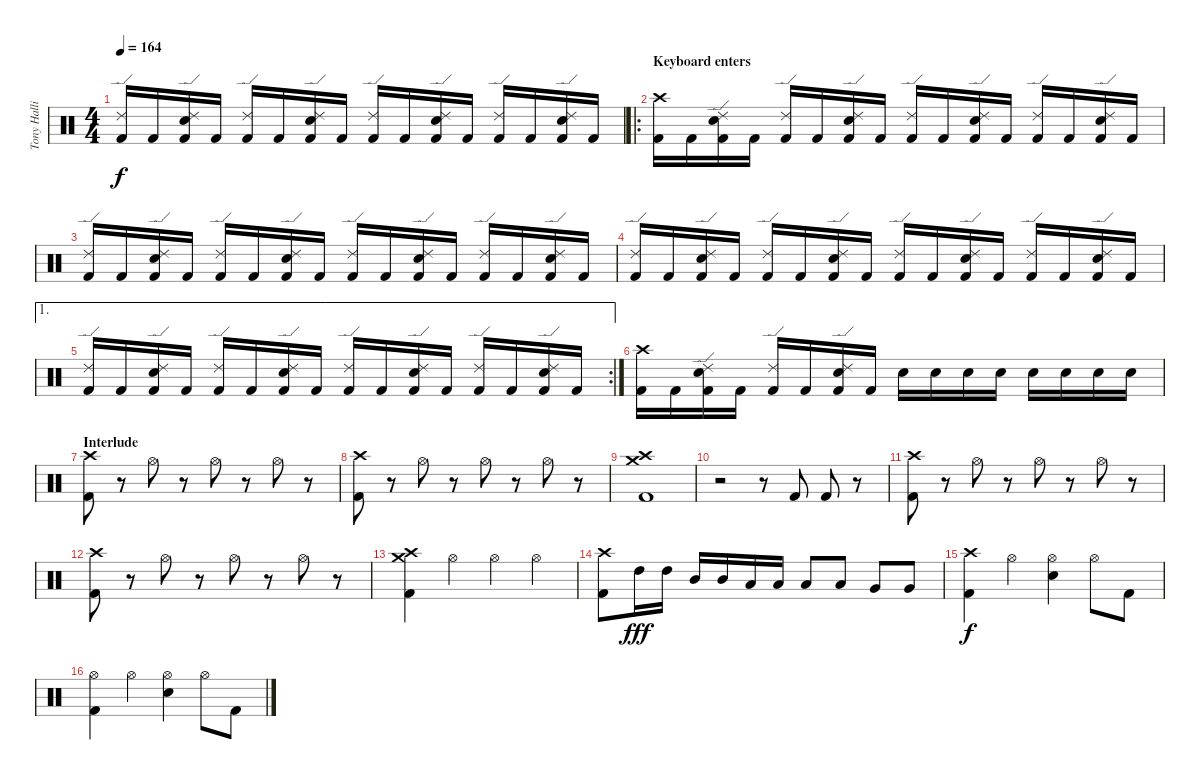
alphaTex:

\track ("Tony Hallio - Drums" "Tony Halli") {instrument percussion}
\staff {score}
\articulation defaults
\ts (4 4)
\tempo 164
\clef neutral
\ks c
("Ride (edge) 2" "Kick (hit) 2").16{dy f} "Kick (hit) 2".16 ("Ride (edge) 2" "Electric Snare (hit)" "Kick (hit) 2").16 "Kick (hit) 2".16 ("Ride (edge) 2" "Kick (hit) 2").16 "Kick (hit) 2".16 ("Ride (edge) 2" "Electric Snare (hit)" "Kick (hit) 2").16 "Kick (hit) 2".16 ("Ride (edge) 2" "Kick (hit) 2").16 "Kick (hit) 2".16 ("Ride (edge) 2" "Electric Snare (hit)" "Kick (hit) 2").16 "Kick (hit) 2".16 ("Ride (edge) 2" "Kick (hit) 2").16 "Kick (hit) 2".16 ("Ride (edge) 2" "Electric Snare (hit)" "Kick (hit) 2").16 "Kick (hit) 2".16 |
\ro
\section ("" "Keyboard enters")
("Crash high (hit)" "Kick (hit) 2").16 "Kick (hit) 2".16 ("Ride (edge) 2" "Electric Snare (hit)" "Kick (hit) 2").16 "Kick (hit) 2".16 ("Ride (edge) 2" "Kick (hit) 2").16 "Kick (hit) 2".16 ("Ride (edge) 2" "Electric Snare (hit)" "Kick (hit) 2").16 "Kick (hit) 2".16 ("Ride (edge) 2" "Kick (hit) 2").16 "Kick (hit) 2".16 ("Ride (edge) 2" "Electric Snare (hit)" "Kick (hit) 2").16 "Kick (hit) 2".16 ("Ride (edge) 2" "Kick (hit) 2").16 "Kick (hit) 2".16 ("Ride (edge) 2" "Electric Snare (hit)" "Kick (hit) 2").16 "Kick (hit) 2".16 |
("Ride (edge) 2" "Kick (hit) 2").16 "Kick (hit) 2".16 ("Ride (edge) 2" "Electric Snare (hit)" "Kick (hit) 2").16 "Kick (hit) 2".16 ("Ride (edge) 2" "Kick (hit) 2").16 "Kick (hit) 2".16 ("Ride (edge) 2" "Electric Snare (hit)" "Kick (hit) 2").16 "Kick (hit) 2".16 ("Ride (edge) 2" "Kick (hit) 2").16 "Kick (hit) 2".16 ("Ride (edge) 2" "Electric Snare (hit)" "Kick (hit) 2").16 "Kick (hit) 2".16 ("Ride (edge) 2" "Kick (hit) 2").16 "Kick (hit) 2".16 ("Ride (edge) 2" "Electric Snare (hit)" "Kick (hit) 2").16 "Kick (hit) 2".16 |
("Ride (edge) 2" "Kick (hit) 2").16 "Kick (hit) 2".16 ("Ride (edge) 2" "Electric Snare (hit)" "Kick (hit) 2").16 "Kick (hit) 2".16 ("Ride (edge) 2" "Kick (hit) 2").16 "Kick (hit) 2".16 ("Ride (edge) 2" "Electric Snare (hit)" "Kick (hit) 2").16 "Kick (hit) 2".16 ("Ride (edge) 2" "Kick (hit) 2").16 "Kick (hit) 2".16 ("Ride (edge) 2" "Electric Snare (hit)" "Kick (hit) 2").16 "Kick (hit) 2".16 ("Ride (edge) 2" "Kick (hit) 2").16 "Kick (hit) 2".16 ("Ride (edge) 2" "Electric Snare (hit)" "Kick (hit) 2").16 "Kick (hit) 2".16 |
\ae 1
\rc 2
("Ride (edge) 2" "Kick (hit) 2").16 "Kick (hit) 2".16 ("Ride (edge) 2" "Electric Snare (hit)" "Kick (hit) 2").16 "Kick (hit) 2".16 ("Ride (edge) 2" "Kick (hit) 2").16 "Kick (hit) 2".16 ("Ride (edge) 2" "Electric Snare (hit)" "Kick (hit) 2").16 "Kick (hit) 2".16 ("Ride (edge) 2" "Kick (hit) 2").16 "Kick (hit) 2".16 ("Ride (edge) 2" "Electric Snare (hit)" "Kick (hit) 2").16 "Kick (hit) 2".16 ("Ride (edge) 2" "Kick (hit) 2").16 "Kick (hit) 2".16 ("Ride (edge) 2" "Electric Snare (hit)" "Kick (hit) 2").16 "Kick (hit) 2".16 |
("Crash high (hit)" "Kick (hit) 2").16 "Kick (hit) 2".16 ("Ride (edge) 2" "Electric Snare (hit)" "Kick (hit) 2").16 "Kick (hit) 2".16 ("Ride (edge) 2" "Kick (hit) 2").16 "Kick (hit) 2".16 ("Ride (edge) 2" "Electric Snare (hit)" "Kick (hit) 2").16 "Kick (hit) 2".16 "Electric Snare (hit)".16 "Electric Snare (hit)".16 "Electric Snare (hit)".16 "Electric Snare (hit)".16 "Electric Snare (hit)".16 "Electric Snare (hit)".16 "Electric Snare (hit)".16 "Electric Snare (hit)".16 |
\section ("" "Interlude")
("Crash high (hit)" "Kick (hit) 2").8 r.8 "Hi-Hat (open)".8 r.8 "Hi-Hat (open)".8 r.8 "Hi-Hat (open)".8 r.8 |
("Crash high (hit)" "Kick (hit) 2").8 r.8 "Hi-Hat (open)".8 r.8 "Hi-Hat (open)".8 r.8 "Hi-Hat (open)".8 r.8 |
("Crash high (hit)" "Crash medium (hit)" "Kick (hit) 2").1 |
r.2 r.8 "Kick (hit) 2".8 "Kick (hit) 2".8 r.8 |
("Crash high (hit)" "Kick (hit) 2").8 r.8 "Hi-Hat (open)".8 r.8 "Hi-Hat (open)".8 r.8 "Hi-Hat (open)".8 r.8 |
("Crash high (hit)" "Kick (hit) 2").8 r.8 "Hi-Hat (open)".8 r.8 "Hi-Hat (open)".8 r.8 "Hi-Hat (open)".8 r.8 |
("Crash medium (hit)" "Crash high (hit)" "Kick (hit) 2").4 "Hi-Hat (open)".4 "Hi-Hat (open)".4 "Hi-Hat (open)".4 |
("Crash high (hit)" "Kick (hit) 2").8 "High Tom (hit)".16{dy fff} "High Tom (hit)".16 "Mid Tom (hit)".16 "Mid Tom (hit)".16 "Low Tom (hit)".16 "Low Tom (hit)".16 "Low Tom (hit)".8 "Low Tom (hit)".8 "Very Low Tom (hit)".8 "Very Low Tom (hit)".8 |
("Crash high (hit)" "Kick (hit) 2").4{dy f} "Hi-Hat (open)".4 ("Hi-Hat (open)" "Electric Snare (hit)").4 "Hi-Hat (open)".8 "Kick (hit) 2".8 |
("Hi-Hat (open)" "Kick (hit) 2").4 "Hi-Hat (open)".4 ("Hi-Hat (open)" "Electric Snare (hit)").4 "Hi-Hat (open)".8 "Kick (hit) 2".8
